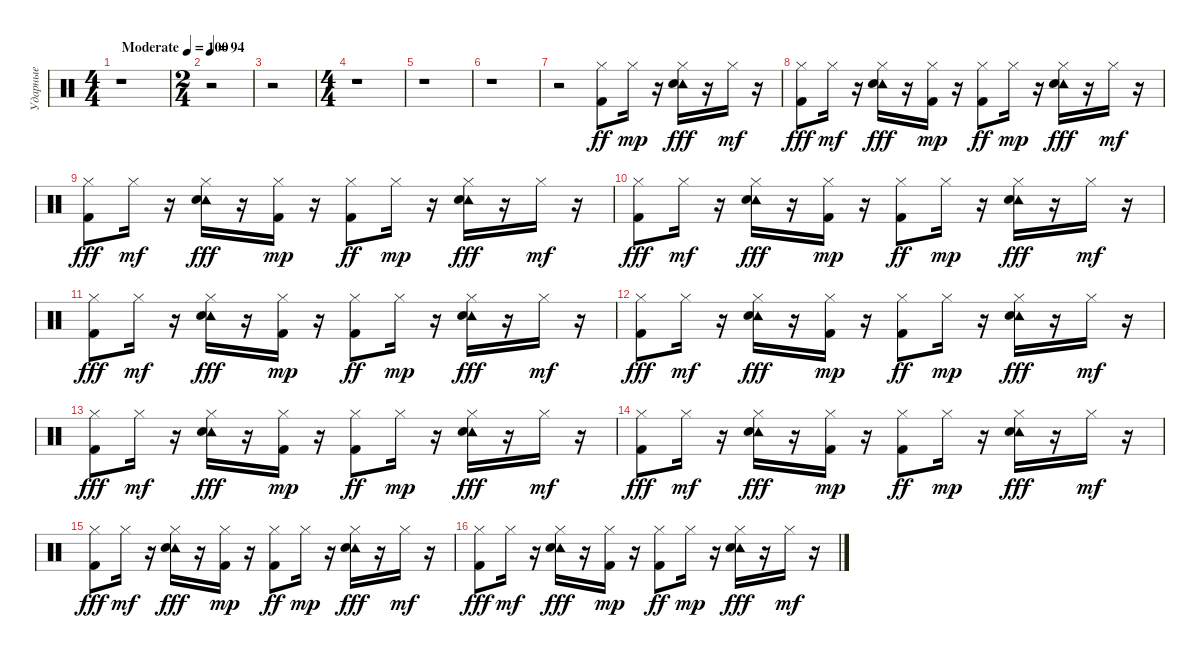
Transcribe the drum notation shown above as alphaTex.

\track ("Ударные" "Ударные") {instrument percussion}
\staff {score}
\articulation defaults
\ts (4 4)
\tempo (100 "Moderate")
\clef neutral
\ks c
r.1{dy ff} |
\ts (2 4)
\tempo 94
r.2 |
r.2 |
\ts (4 4)
r.1 |
r.1 |
r.1 |
r.2 ("Kick (hit) 2" "Hi-Hat (closed)").8 "Hi-Hat (closed)".16{dy mp} r.16 ("Tambourine (hit)" "Hi-Hat (closed)" "Snare (hit) 2").16{dy fff} r.16 "Hi-Hat (closed)".16{dy mf} r.16 |
("Kick (hit) 2" "Hi-Hat (closed)").8{dy fff} "Hi-Hat (closed)".16{dy mf} r.16 ("Tambourine (hit)" "Hi-Hat (closed)" "Snare (hit) 2").16{dy fff} r.16 ("Kick (hit) 2" "Hi-Hat (closed)").16{dy mp} r.16 ("Kick (hit) 2" "Hi-Hat (closed)").8{dy ff} "Hi-Hat (closed)".16{dy mp} r.16 ("Tambourine (hit)" "Hi-Hat (closed)" "Snare (hit) 2").16{dy fff} r.16 "Hi-Hat (closed)".16{dy mf} r.16 |
("Kick (hit) 2" "Hi-Hat (closed)").8{dy fff} "Hi-Hat (closed)".16{dy mf} r.16 ("Tambourine (hit)" "Hi-Hat (closed)" "Snare (hit) 2").16{dy fff} r.16 ("Kick (hit) 2" "Hi-Hat (closed)").16{dy mp} r.16 ("Kick (hit) 2" "Hi-Hat (closed)").8{dy ff} "Hi-Hat (closed)".16{dy mp} r.16 ("Tambourine (hit)" "Hi-Hat (closed)" "Snare (hit) 2").16{dy fff} r.16 "Hi-Hat (closed)".16{dy mf} r.16 |
("Kick (hit) 2" "Hi-Hat (closed)").8{dy fff} "Hi-Hat (closed)".16{dy mf} r.16 ("Tambourine (hit)" "Hi-Hat (closed)" "Snare (hit) 2").16{dy fff} r.16 ("Kick (hit) 2" "Hi-Hat (closed)").16{dy mp} r.16 ("Kick (hit) 2" "Hi-Hat (closed)").8{dy ff} "Hi-Hat (closed)".16{dy mp} r.16 ("Tambourine (hit)" "Hi-Hat (closed)" "Snare (hit) 2").16{dy fff} r.16 "Hi-Hat (closed)".16{dy mf} r.16 |
("Kick (hit) 2" "Hi-Hat (closed)").8{dy fff} "Hi-Hat (closed)".16{dy mf} r.16 ("Tambourine (hit)" "Hi-Hat (closed)" "Snare (hit) 2").16{dy fff} r.16 ("Kick (hit) 2" "Hi-Hat (closed)").16{dy mp} r.16 ("Kick (hit) 2" "Hi-Hat (closed)").8{dy ff} "Hi-Hat (closed)".16{dy mp} r.16 ("Tambourine (hit)" "Hi-Hat (closed)" "Snare (hit) 2").16{dy fff} r.16 "Hi-Hat (closed)".16{dy mf} r.16 |
("Kick (hit) 2" "Hi-Hat (closed)").8{dy fff} "Hi-Hat (closed)".16{dy mf} r.16 ("Tambourine (hit)" "Hi-Hat (closed)" "Snare (hit) 2").16{dy fff} r.16 ("Kick (hit) 2" "Hi-Hat (closed)").16{dy mp} r.16 ("Kick (hit) 2" "Hi-Hat (closed)").8{dy ff} "Hi-Hat (closed)".16{dy mp} r.16 ("Tambourine (hit)" "Hi-Hat (closed)" "Snare (hit) 2").16{dy fff} r.16 "Hi-Hat (closed)".16{dy mf} r.16 |
("Kick (hit) 2" "Hi-Hat (closed)").8{dy fff} "Hi-Hat (closed)".16{dy mf} r.16 ("Tambourine (hit)" "Hi-Hat (closed)" "Snare (hit) 2").16{dy fff} r.16 ("Kick (hit) 2" "Hi-Hat (closed)").16{dy mp} r.16 ("Kick (hit) 2" "Hi-Hat (closed)").8{dy ff} "Hi-Hat (closed)".16{dy mp} r.16 ("Tambourine (hit)" "Hi-Hat (closed)" "Snare (hit) 2").16{dy fff} r.16 "Hi-Hat (closed)".16{dy mf} r.16 |
("Kick (hit) 2" "Hi-Hat (closed)").8{dy fff} "Hi-Hat (closed)".16{dy mf} r.16 ("Tambourine (hit)" "Hi-Hat (closed)" "Snare (hit) 2").16{dy fff} r.16 ("Kick (hit) 2" "Hi-Hat (closed)").16{dy mp} r.16 ("Kick (hit) 2" "Hi-Hat (closed)").8{dy ff} "Hi-Hat (closed)".16{dy mp} r.16 ("Tambourine (hit)" "Hi-Hat (closed)" "Snare (hit) 2").16{dy fff} r.16 "Hi-Hat (closed)".16{dy mf} r.16 |
("Kick (hit) 2" "Hi-Hat (closed)").8{dy fff} "Hi-Hat (closed)".16{dy mf} r.16 ("Tambourine (hit)" "Hi-Hat (closed)" "Snare (hit) 2").16{dy fff} r.16 ("Kick (hit) 2" "Hi-Hat (closed)").16{dy mp} r.16 ("Kick (hit) 2" "Hi-Hat (closed)").8{dy ff} "Hi-Hat (closed)".16{dy mp} r.16 ("Tambourine (hit)" "Hi-Hat (closed)" "Snare (hit) 2").16{dy fff} r.16 "Hi-Hat (closed)".16{dy mf} r.16 |
("Kick (hit) 2" "Hi-Hat (closed)").8{dy fff} "Hi-Hat (closed)".16{dy mf} r.16 ("Tambourine (hit)" "Hi-Hat (closed)" "Snare (hit) 2").16{dy fff} r.16 ("Kick (hit) 2" "Hi-Hat (closed)").16{dy mp} r.16 ("Kick (hit) 2" "Hi-Hat (closed)").8{dy ff} "Hi-Hat (closed)".16{dy mp} r.16 ("Tambourine (hit)" "Hi-Hat (closed)" "Snare (hit) 2").16{dy fff} r.16 "Hi-Hat (closed)".16{dy mf} r.16
